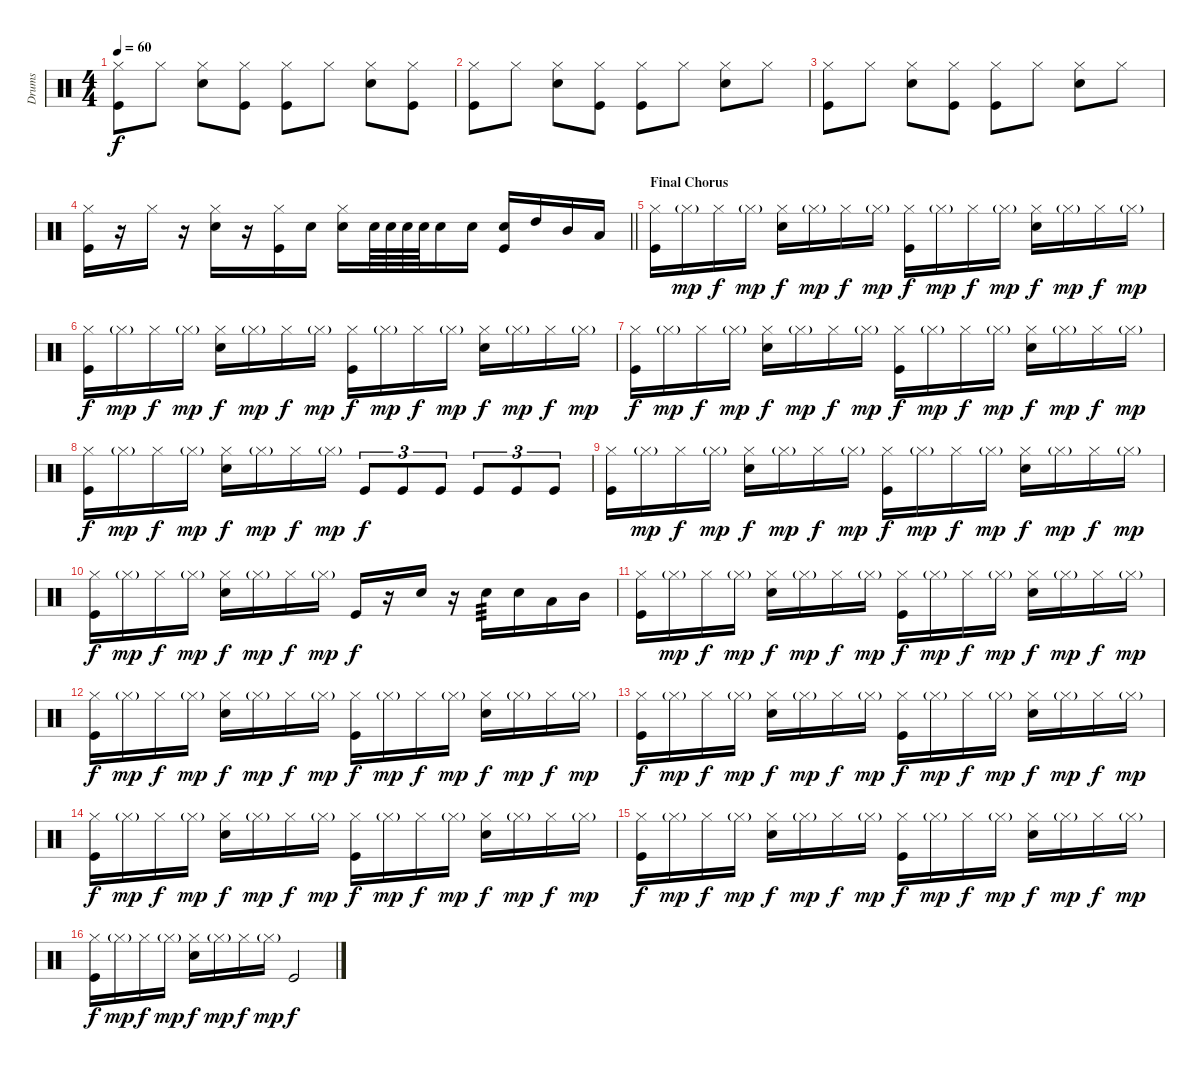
\track ("Drums" "Drums") {instrument percussion}
\staff {score}
\articulation defaults
\ts (4 4)
\tempo 60
\clef neutral
\ks c
("Hi-Hat (closed)" "Kick (hit)").8{dy f} "Hi-Hat (closed)".8 ("Hi-Hat (closed)" "Snare (hit) 2").8 ("Hi-Hat (closed)" "Kick (hit)").8 ("Hi-Hat (closed)" "Kick (hit)").8 "Hi-Hat (closed)".8 ("Hi-Hat (closed)" "Snare (hit) 2").8 ("Hi-Hat (closed)" "Kick (hit)").8 |
("Hi-Hat (closed)" "Kick (hit)").8 "Hi-Hat (closed)".8 ("Hi-Hat (closed)" "Snare (hit) 2").8 ("Hi-Hat (closed)" "Kick (hit)").8 ("Hi-Hat (closed)" "Kick (hit)").8 "Hi-Hat (closed)".8 ("Hi-Hat (closed)" "Snare (hit) 2").8 "Hi-Hat (closed)".8 |
("Hi-Hat (closed)" "Kick (hit)").8 "Hi-Hat (closed)".8 ("Hi-Hat (closed)" "Snare (hit) 2").8 ("Hi-Hat (closed)" "Kick (hit)").8 ("Hi-Hat (closed)" "Kick (hit)").8 "Hi-Hat (closed)".8 ("Hi-Hat (closed)" "Snare (hit) 2").8 "Hi-Hat (closed)".8 |
\barLineRight lightlight
("Hi-Hat (closed)" "Kick (hit)").16 r.16 "Hi-Hat (closed)".16 r.16 ("Hi-Hat (closed)" "Snare (hit) 2").16 r.16 ("Hi-Hat (closed)" "Kick (hit)").16 "Snare (hit) 2".16 ("Hi-Hat (closed)" "Snare (hit) 2").16{volume 14} "Snare (hit) 2".64 "Snare (hit) 2".64 "Snare (hit) 2".64 "Snare (hit) 2".64 "Snare (hit) 2".16 "Snare (hit) 2".16 ("Snare (hit) 2" "Kick (hit)").16 "High Tom (hit)".16 "Mid Tom (hit)".16 "Low Tom (hit)".16 |
\section ("" "Final Chorus")
("Hi-Hat (closed)" "Kick (hit)").16 "Hi-Hat (closed)"{g}.16{dy mp} "Hi-Hat (closed)".16{dy f} "Hi-Hat (closed)"{g}.16{dy mp} ("Hi-Hat (closed)" "Snare (hit) 2").16{dy f} "Hi-Hat (closed)"{g}.16{dy mp} "Hi-Hat (closed)".16{dy f} "Hi-Hat (closed)"{g}.16{dy mp} ("Hi-Hat (closed)" "Kick (hit)").16{dy f} "Hi-Hat (closed)"{g}.16{dy mp} "Hi-Hat (closed)".16{dy f} "Hi-Hat (closed)"{g}.16{dy mp} ("Hi-Hat (closed)" "Snare (hit) 2").16{dy f} "Hi-Hat (closed)"{g}.16{dy mp} "Hi-Hat (closed)".16{dy f} "Hi-Hat (closed)"{g}.16{dy mp} |
("Hi-Hat (closed)" "Kick (hit)").16{dy f} "Hi-Hat (closed)"{g}.16{dy mp} "Hi-Hat (closed)".16{dy f} "Hi-Hat (closed)"{g}.16{dy mp} ("Hi-Hat (closed)" "Snare (hit) 2").16{dy f} "Hi-Hat (closed)"{g}.16{dy mp} "Hi-Hat (closed)".16{dy f} "Hi-Hat (closed)"{g}.16{dy mp} ("Hi-Hat (closed)" "Kick (hit)").16{dy f} "Hi-Hat (closed)"{g}.16{dy mp} "Hi-Hat (closed)".16{dy f} "Hi-Hat (closed)"{g}.16{dy mp} ("Hi-Hat (closed)" "Snare (hit) 2").16{dy f} "Hi-Hat (closed)"{g}.16{dy mp} "Hi-Hat (closed)".16{dy f} "Hi-Hat (closed)"{g}.16{dy mp} |
("Hi-Hat (closed)" "Kick (hit)").16{dy f} "Hi-Hat (closed)"{g}.16{dy mp} "Hi-Hat (closed)".16{dy f} "Hi-Hat (closed)"{g}.16{dy mp} ("Hi-Hat (closed)" "Snare (hit) 2").16{dy f} "Hi-Hat (closed)"{g}.16{dy mp} "Hi-Hat (closed)".16{dy f} "Hi-Hat (closed)"{g}.16{dy mp} ("Hi-Hat (closed)" "Kick (hit)").16{dy f} "Hi-Hat (closed)"{g}.16{dy mp} "Hi-Hat (closed)".16{dy f} "Hi-Hat (closed)"{g}.16{dy mp} ("Hi-Hat (closed)" "Snare (hit) 2").16{dy f} "Hi-Hat (closed)"{g}.16{dy mp} "Hi-Hat (closed)".16{dy f} "Hi-Hat (closed)"{g}.16{dy mp} |
("Hi-Hat (closed)" "Kick (hit)").16{dy f} "Hi-Hat (closed)"{g}.16{dy mp} "Hi-Hat (closed)".16{dy f} "Hi-Hat (closed)"{g}.16{dy mp} ("Hi-Hat (closed)" "Snare (hit) 2").16{dy f} "Hi-Hat (closed)"{g}.16{dy mp} "Hi-Hat (closed)".16{dy f} "Hi-Hat (closed)"{g}.16{dy mp} "Kick (hit)".8{tu (3 2) dy f} "Kick (hit)".8{tu (3 2)} "Kick (hit)".8{tu (3 2)} "Kick (hit)".8{tu (3 2)} "Kick (hit)".8{tu (3 2)} "Kick (hit)".8{tu (3 2)} |
("Hi-Hat (closed)" "Kick (hit)").16 "Hi-Hat (closed)"{g}.16{dy mp} "Hi-Hat (closed)".16{dy f} "Hi-Hat (closed)"{g}.16{dy mp} ("Hi-Hat (closed)" "Snare (hit) 2").16{dy f} "Hi-Hat (closed)"{g}.16{dy mp} "Hi-Hat (closed)".16{dy f} "Hi-Hat (closed)"{g}.16{dy mp} ("Hi-Hat (closed)" "Kick (hit)").16{dy f} "Hi-Hat (closed)"{g}.16{dy mp} "Hi-Hat (closed)".16{dy f} "Hi-Hat (closed)"{g}.16{dy mp} ("Hi-Hat (closed)" "Snare (hit) 2").16{dy f} "Hi-Hat (closed)"{g}.16{dy mp} "Hi-Hat (closed)".16{dy f} "Hi-Hat (closed)"{g}.16{dy mp} |
("Hi-Hat (closed)" "Kick (hit)").16{dy f} "Hi-Hat (closed)"{g}.16{dy mp} "Hi-Hat (closed)".16{dy f} "Hi-Hat (closed)"{g}.16{dy mp} ("Hi-Hat (closed)" "Snare (hit) 2").16{dy f} "Hi-Hat (closed)"{g}.16{dy mp} "Hi-Hat (closed)".16{dy f} "Hi-Hat (closed)"{g}.16{dy mp} "Kick (hit)".16{dy f} r.16 "Snare (hit) 2".16 r.16 "Snare (hit) 2".16{tp 3} "Snare (hit) 2".16 "Low Tom (hit)".16 "Mid Tom (hit)".16 |
("Hi-Hat (closed)" "Kick (hit)").16 "Hi-Hat (closed)"{g}.16{dy mp} "Hi-Hat (closed)".16{dy f} "Hi-Hat (closed)"{g}.16{dy mp} ("Hi-Hat (closed)" "Snare (hit) 2").16{dy f} "Hi-Hat (closed)"{g}.16{dy mp} "Hi-Hat (closed)".16{dy f} "Hi-Hat (closed)"{g}.16{dy mp} ("Hi-Hat (closed)" "Kick (hit)").16{dy f} "Hi-Hat (closed)"{g}.16{dy mp} "Hi-Hat (closed)".16{dy f} "Hi-Hat (closed)"{g}.16{dy mp} ("Hi-Hat (closed)" "Snare (hit) 2").16{dy f} "Hi-Hat (closed)"{g}.16{dy mp} "Hi-Hat (closed)".16{dy f} "Hi-Hat (closed)"{g}.16{dy mp} |
("Hi-Hat (closed)" "Kick (hit)").16{dy f} "Hi-Hat (closed)"{g}.16{dy mp} "Hi-Hat (closed)".16{dy f} "Hi-Hat (closed)"{g}.16{dy mp} ("Hi-Hat (closed)" "Snare (hit) 2").16{dy f} "Hi-Hat (closed)"{g}.16{dy mp} "Hi-Hat (closed)".16{dy f} "Hi-Hat (closed)"{g}.16{dy mp} ("Hi-Hat (closed)" "Kick (hit)").16{dy f} "Hi-Hat (closed)"{g}.16{dy mp} "Hi-Hat (closed)".16{dy f} "Hi-Hat (closed)"{g}.16{dy mp} ("Hi-Hat (closed)" "Snare (hit) 2").16{dy f} "Hi-Hat (closed)"{g}.16{dy mp} "Hi-Hat (closed)".16{dy f} "Hi-Hat (closed)"{g}.16{dy mp} |
("Hi-Hat (closed)" "Kick (hit)").16{dy f} "Hi-Hat (closed)"{g}.16{dy mp} "Hi-Hat (closed)".16{dy f} "Hi-Hat (closed)"{g}.16{dy mp} ("Hi-Hat (closed)" "Snare (hit) 2").16{dy f} "Hi-Hat (closed)"{g}.16{dy mp} "Hi-Hat (closed)".16{dy f} "Hi-Hat (closed)"{g}.16{dy mp} ("Hi-Hat (closed)" "Kick (hit)").16{dy f} "Hi-Hat (closed)"{g}.16{dy mp} "Hi-Hat (closed)".16{dy f} "Hi-Hat (closed)"{g}.16{dy mp} ("Hi-Hat (closed)" "Snare (hit) 2").16{dy f} "Hi-Hat (closed)"{g}.16{dy mp} "Hi-Hat (closed)".16{dy f} "Hi-Hat (closed)"{g}.16{dy mp} |
("Hi-Hat (closed)" "Kick (hit)").16{dy f} "Hi-Hat (closed)"{g}.16{dy mp} "Hi-Hat (closed)".16{dy f} "Hi-Hat (closed)"{g}.16{dy mp} ("Hi-Hat (closed)" "Snare (hit) 2").16{dy f} "Hi-Hat (closed)"{g}.16{dy mp} "Hi-Hat (closed)".16{dy f} "Hi-Hat (closed)"{g}.16{dy mp} ("Hi-Hat (closed)" "Kick (hit)").16{dy f} "Hi-Hat (closed)"{g}.16{dy mp} "Hi-Hat (closed)".16{dy f} "Hi-Hat (closed)"{g}.16{dy mp} ("Hi-Hat (closed)" "Snare (hit) 2").16{dy f} "Hi-Hat (closed)"{g}.16{dy mp} "Hi-Hat (closed)".16{dy f} "Hi-Hat (closed)"{g}.16{dy mp} |
("Hi-Hat (closed)" "Kick (hit)").16{dy f} "Hi-Hat (closed)"{g}.16{dy mp} "Hi-Hat (closed)".16{dy f} "Hi-Hat (closed)"{g}.16{dy mp} ("Hi-Hat (closed)" "Snare (hit) 2").16{dy f} "Hi-Hat (closed)"{g}.16{dy mp} "Hi-Hat (closed)".16{dy f} "Hi-Hat (closed)"{g}.16{dy mp} ("Hi-Hat (closed)" "Kick (hit)").16{dy f} "Hi-Hat (closed)"{g}.16{dy mp} "Hi-Hat (closed)".16{dy f} "Hi-Hat (closed)"{g}.16{dy mp} ("Hi-Hat (closed)" "Snare (hit) 2").16{dy f} "Hi-Hat (closed)"{g}.16{dy mp} "Hi-Hat (closed)".16{dy f} "Hi-Hat (closed)"{g}.16{dy mp} |
("Hi-Hat (closed)" "Kick (hit)").16{dy f} "Hi-Hat (closed)"{g}.16{dy mp} "Hi-Hat (closed)".16{dy f} "Hi-Hat (closed)"{g}.16{dy mp} ("Hi-Hat (closed)" "Snare (hit) 2").16{dy f} "Hi-Hat (closed)"{g}.16{dy mp} "Hi-Hat (closed)".16{dy f} "Hi-Hat (closed)"{g}.16{dy mp} "Kick (hit)".2{dy f}
